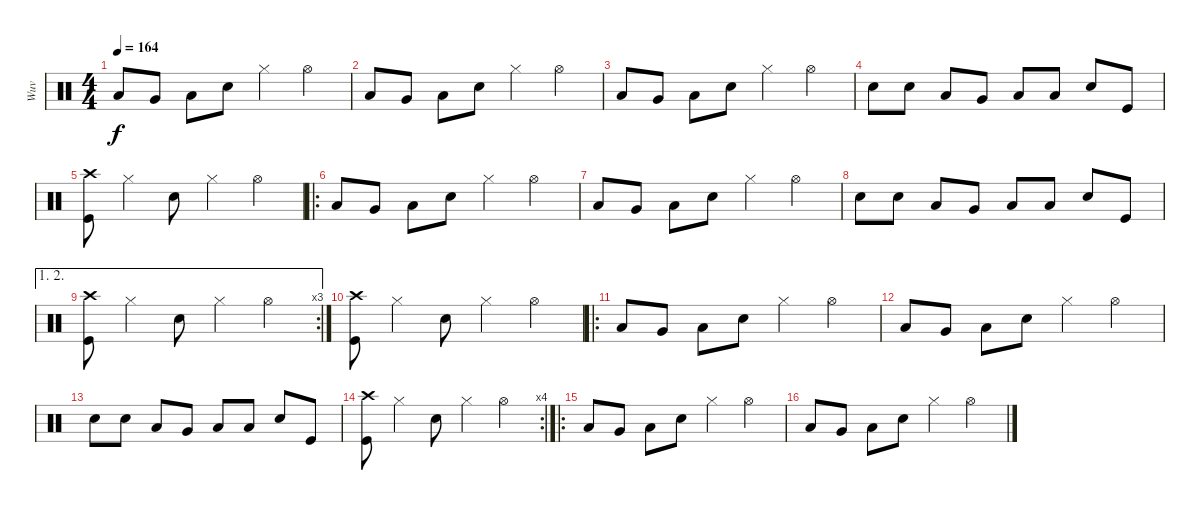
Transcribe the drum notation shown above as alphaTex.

\track ("Wuv" "Wuv") {instrument percussion}
\staff {score}
\articulation defaults
\ts (4 4)
\tempo 164
\tempo 150
\tempo 164
\clef neutral
\ks c "Low Tom (hit)".8{dy f} "Very Low Tom (hit)".8 "Low Floor Tom (hit)".8 "Snare (hit) 2".8 "Hi-Hat (closed)".4 "Hi-Hat (open)".4
|
"Low Tom (hit)".8 "Very Low Tom (hit)".8 "Low Floor Tom (hit)".8 "Snare (hit) 2".8 "Hi-Hat (closed)".4 "Hi-Hat (open)".4 |
"Low Tom (hit)".8 "Very Low Tom (hit)".8 "Low Floor Tom (hit)".8 "Snare (hit) 2".8 "Hi-Hat (closed)".4 "Hi-Hat (open)".4 |
"Snare (hit) 2".8 "Snare (hit) 2".8 "Low Tom (hit)".8 "Very Low Tom (hit)".8 "Low Floor Tom (hit)".8 "Low Floor Tom (hit)".8 "Snare (hit) 2".8 "Kick (hit)".8 |
("Crash high (hit)" "Kick (hit)").8 "Hi-Hat (closed)".4 "Snare (hit) 2".8 "Hi-Hat (closed)".4 "Hi-Hat (open)".4 |
\ro "Low Tom (hit)".8 "Very Low Tom (hit)".8 "Low Floor Tom (hit)".8 "Snare (hit) 2".8 "Hi-Hat (closed)".4 "Hi-Hat (open)".4
|
"Low Tom (hit)".8 "Very Low Tom (hit)".8 "Low Floor Tom (hit)".8 "Snare (hit) 2".8 "Hi-Hat (closed)".4 "Hi-Hat (open)".4 |
"Snare (hit) 2".8 "Snare (hit) 2".8 "Low Tom (hit)".8 "Very Low Tom (hit)".8 "Low Floor Tom (hit)".8 "Low Floor Tom (hit)".8 "Snare (hit) 2".8 "Kick (hit)".8 |
\ae (1 2)
\rc 3
("Crash high (hit)" "Kick (hit)").8 "Hi-Hat (closed)".4 "Snare (hit) 2".8 "Hi-Hat (closed)".4 "Hi-Hat (open)".4 |
("Crash high (hit)" "Kick (hit)").8 "Hi-Hat (closed)".4 "Snare (hit) 2".8 "Hi-Hat (closed)".4 "Hi-Hat (open)".4 |
\ro "Low Tom (hit)".8 "Very Low Tom (hit)".8 "Low Floor Tom (hit)".8 "Snare (hit) 2".8 "Hi-Hat (closed)".4 "Hi-Hat (open)".4
|
"Low Tom (hit)".8 "Very Low Tom (hit)".8 "Low Floor Tom (hit)".8 "Snare (hit) 2".8 "Hi-Hat (closed)".4 "Hi-Hat (open)".4 |
"Snare (hit) 2".8 "Snare (hit) 2".8 "Low Tom (hit)".8 "Very Low Tom (hit)".8 "Low Floor Tom (hit)".8 "Low Floor Tom (hit)".8 "Snare (hit) 2".8 "Kick (hit)".8 |
\rc 4
("Crash high (hit)" "Kick (hit)").8 "Hi-Hat (closed)".4 "Snare (hit) 2".8 "Hi-Hat (closed)".4 "Hi-Hat (open)".4 |
\ro "Low Tom (hit)".8 "Very Low Tom (hit)".8 "Low Floor Tom (hit)".8 "Snare (hit) 2".8 "Hi-Hat (closed)".4 "Hi-Hat (open)".4
|
"Low Tom (hit)".8 "Very Low Tom (hit)".8 "Low Floor Tom (hit)".8 "Snare (hit) 2".8 "Hi-Hat (closed)".4 "Hi-Hat (open)".4
